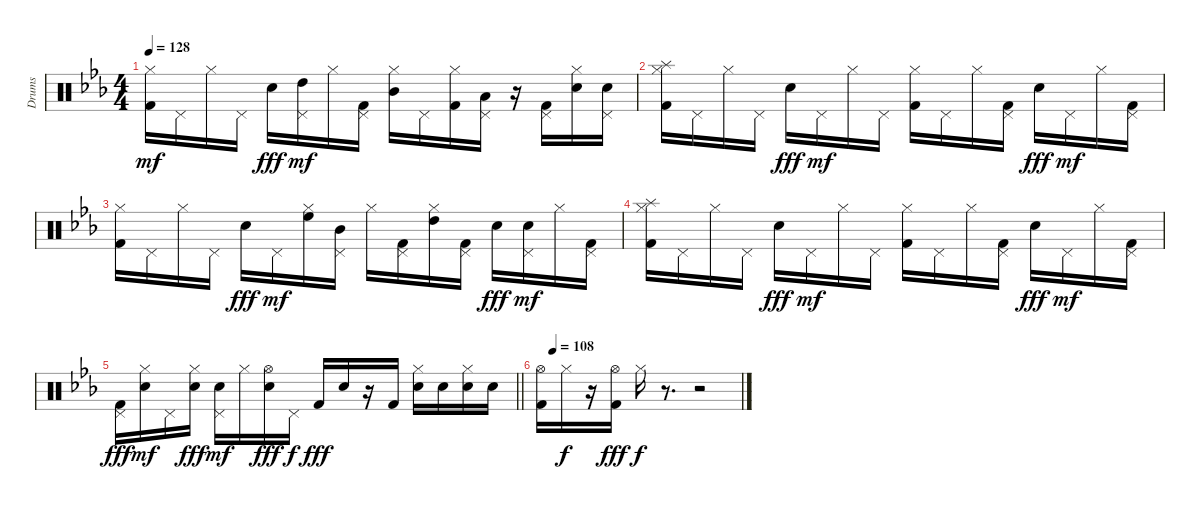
\track ("Drums" "Drums") {instrument percussion}
\staff {score}
\articulation defaults
\ts (4 4)
\tempo 128
\clef neutral
\ks cminor
("Kick (hit) 2" "Hi-Hat (closed)").16{dy mf} "Pedal Hi-Hat (hit)".16 "Hi-Hat (closed)".16 "Pedal Hi-Hat (hit)".16 "Electric Snare (hit)".16{dy fff} ("High Tom (hit)" "Pedal Hi-Hat (hit)").16{dy mf} "Hi-Hat (closed)".16 ("Kick (hit) 2" "Pedal Hi-Hat (hit)").16 ("Mid Tom (hit)" "Hi-Hat (closed)").16 "Pedal Hi-Hat (hit)".16 ("Kick (hit) 2" "Hi-Hat (closed)").16 ("Low Tom (hit)" "Pedal Hi-Hat (hit)").16 r.16 ("Kick (hit) 2" "Pedal Hi-Hat (hit)").16 ("Electric Snare (hit)" "Hi-Hat (closed)").16 ("Electric Snare (hit)" "Pedal Hi-Hat (hit)").16 |
("Splash (hit)" "Kick (hit) 2" "Hi-Hat (closed)").16 "Pedal Hi-Hat (hit)".16 "Hi-Hat (closed)".16 "Pedal Hi-Hat (hit)".16 "Electric Snare (hit)".16{dy fff} "Pedal Hi-Hat (hit)".16{dy mf} "Hi-Hat (closed)".16 "Pedal Hi-Hat (hit)".16 ("Kick (hit) 2" "Hi-Hat (closed)").16 "Pedal Hi-Hat (hit)".16 "Hi-Hat (closed)".16 ("Kick (hit) 2" "Pedal Hi-Hat (hit)").16 "Electric Snare (hit)".16{dy fff} "Pedal Hi-Hat (hit)".16{dy mf} "Hi-Hat (closed)".16 ("Kick (hit) 2" "Pedal Hi-Hat (hit)").16 |
("Kick (hit) 2" "Hi-Hat (closed)").16 "Pedal Hi-Hat (hit)".16 "Hi-Hat (closed)".16 "Pedal Hi-Hat (hit)".16 "Electric Snare (hit)".16{dy fff} "Pedal Hi-Hat (hit)".16{dy mf} ("High Floor Tom (hit)" "Hi-Hat (closed)").16 ("Mid Tom (hit)" "Pedal Hi-Hat (hit)").16 "Hi-Hat (closed)".16 ("Kick (hit) 2" "Pedal Hi-Hat (hit)").16 ("High Tom (hit)" "Hi-Hat (closed)").16 ("Kick (hit) 2" "Pedal Hi-Hat (hit)").16 "Electric Snare (hit)".16{dy fff} ("Electric Snare (hit)" "Pedal Hi-Hat (hit)").16{dy mf} "Hi-Hat (closed)".16 ("Kick (hit) 2" "Pedal Hi-Hat (hit)").16 |
("Splash (hit)" "Kick (hit) 2" "Hi-Hat (closed)").16 "Pedal Hi-Hat (hit)".16 "Hi-Hat (closed)".16 "Pedal Hi-Hat (hit)".16 "Electric Snare (hit)".16{dy fff} "Pedal Hi-Hat (hit)".16{dy mf} "Hi-Hat (closed)".16 "Pedal Hi-Hat (hit)".16 ("Kick (hit) 2" "Hi-Hat (closed)").16 "Pedal Hi-Hat (hit)".16 "Hi-Hat (closed)".16 ("Kick (hit) 2" "Pedal Hi-Hat (hit)").16 "Electric Snare (hit)".16{dy fff} "Pedal Hi-Hat (hit)".16{dy mf} "Hi-Hat (closed)".16 ("Kick (hit) 2" "Pedal Hi-Hat (hit)").16 |
\barLineRight lightlight
("Kick (hit) 2" "Pedal Hi-Hat (hit)").16{dy fff} ("Electric Snare (hit)" "Hi-Hat (closed)").16{dy mf} "Pedal Hi-Hat (hit)".16 ("Electric Snare (hit)" "Hi-Hat (closed)").16{dy fff} ("Electric Snare (hit)" "Pedal Hi-Hat (hit)").16{dy mf} "Hi-Hat (closed)".16 ("Electric Snare (hit)" "Hi-Hat (open)").16{dy fff} "Pedal Hi-Hat (hit)".16{dy f} "Kick (hit) 2".16{dy fff} "Electric Snare (hit)".16 r.16 "Kick (hit) 2".16 ("Electric Snare (hit)" "Hi-Hat (closed)").16 "Electric Snare (hit)".16 ("Electric Snare (hit)" "Hi-Hat (closed)").16 "Electric Snare (hit)".16 |
\tempo (108 0.0625)
("Kick (hit) 2" "Hi-Hat (open)").16 "Hi-Hat (closed)".16{dy f} r.16 ("Kick (hit) 2" "Hi-Hat (open)").16{dy fff} "Hi-Hat (closed)".16{dy f} r.8{d} r.2
